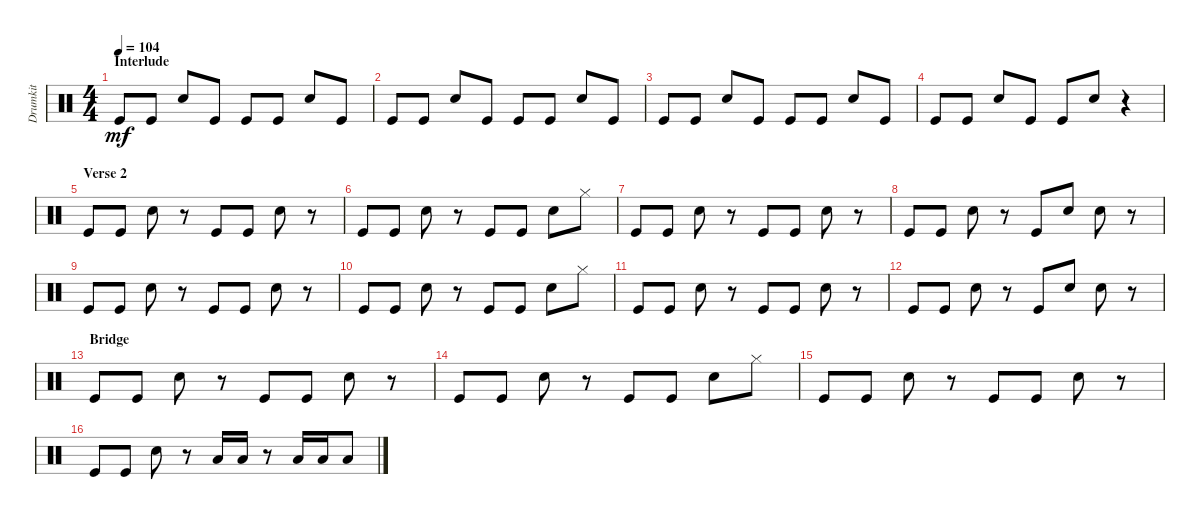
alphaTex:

\track ("Drumkit" "Drumkit") {instrument percussion}
\staff {score}
\articulation defaults
\ts (4 4)
\section ("" "Interlude")
\tempo 104
\clef neutral
\ks c "Kick (hit)".8{dy mf} "Kick (hit)".8 "Snare (hit) 2".8 "Kick (hit)".8 "Kick (hit)".8 "Kick (hit)".8 "Snare (hit) 2".8 "Kick (hit)".8
|
"Kick (hit)".8 "Kick (hit)".8 "Snare (hit) 2".8 "Kick (hit)".8 "Kick (hit)".8 "Kick (hit)".8 "Snare (hit) 2".8 "Kick (hit)".8 |
"Kick (hit)".8 "Kick (hit)".8 "Snare (hit) 2".8 "Kick (hit)".8 "Kick (hit)".8 "Kick (hit)".8 "Snare (hit) 2".8 "Kick (hit)".8 |
"Kick (hit)".8 "Kick (hit)".8 "Snare (hit) 2".8 "Kick (hit)".8 "Kick (hit)".8 "Snare (hit) 2".8 r.4 |
\section ("" "Verse 2")
"Kick (hit)".8 "Kick (hit)".8 "Snare (hit) 2".8 r.8 "Kick (hit)".8 "Kick (hit)".8 "Snare (hit) 2".8 r.8 |
"Kick (hit)".8 "Kick (hit)".8 "Snare (hit) 2".8 r.8 "Kick (hit)".8 "Kick (hit)".8 "Snare (hit) 2".8 "Hi-Hat (closed)".8 |
"Kick (hit)".8 "Kick (hit)".8 "Snare (hit) 2".8 r.8 "Kick (hit)".8 "Kick (hit)".8 "Snare (hit) 2".8 r.8 |
"Kick (hit)".8 "Kick (hit)".8 "Snare (hit) 2".8 r.8 "Kick (hit)".8 "Snare (hit) 2".8 "Snare (hit) 2".8 r.8 |
"Kick (hit)".8 "Kick (hit)".8 "Snare (hit) 2".8 r.8 "Kick (hit)".8 "Kick (hit)".8 "Snare (hit) 2".8 r.8 |
"Kick (hit)".8 "Kick (hit)".8 "Snare (hit) 2".8 r.8 "Kick (hit)".8 "Kick (hit)".8 "Snare (hit) 2".8 "Hi-Hat (closed)".8 |
"Kick (hit)".8 "Kick (hit)".8 "Snare (hit) 2".8 r.8 "Kick (hit)".8 "Kick (hit)".8 "Snare (hit) 2".8 r.8 |
"Kick (hit)".8 "Kick (hit)".8 "Snare (hit) 2".8 r.8 "Kick (hit)".8 "Snare (hit) 2".8 "Snare (hit) 2".8 r.8 |
\section ("" "Bridge")
"Kick (hit)".8 "Kick (hit)".8 "Snare (hit) 2".8 r.8 "Kick (hit)".8 "Kick (hit)".8 "Snare (hit) 2".8 r.8 |
"Kick (hit)".8 "Kick (hit)".8 "Snare (hit) 2".8 r.8 "Kick (hit)".8 "Kick (hit)".8 "Snare (hit) 2".8 "Hi-Hat (closed)".8 |
"Kick (hit)".8 "Kick (hit)".8 "Snare (hit) 2".8 r.8 "Kick (hit)".8 "Kick (hit)".8 "Snare (hit) 2".8 r.8 |
"Kick (hit)".8 "Kick (hit)".8 "Snare (hit) 2".8 r.8 "Low Floor Tom (hit)".16 "Low Floor Tom (hit)".16 r.8 "Low Floor Tom (hit)".16 "Low Floor Tom (hit)".16 "Low Floor Tom (hit)".8
